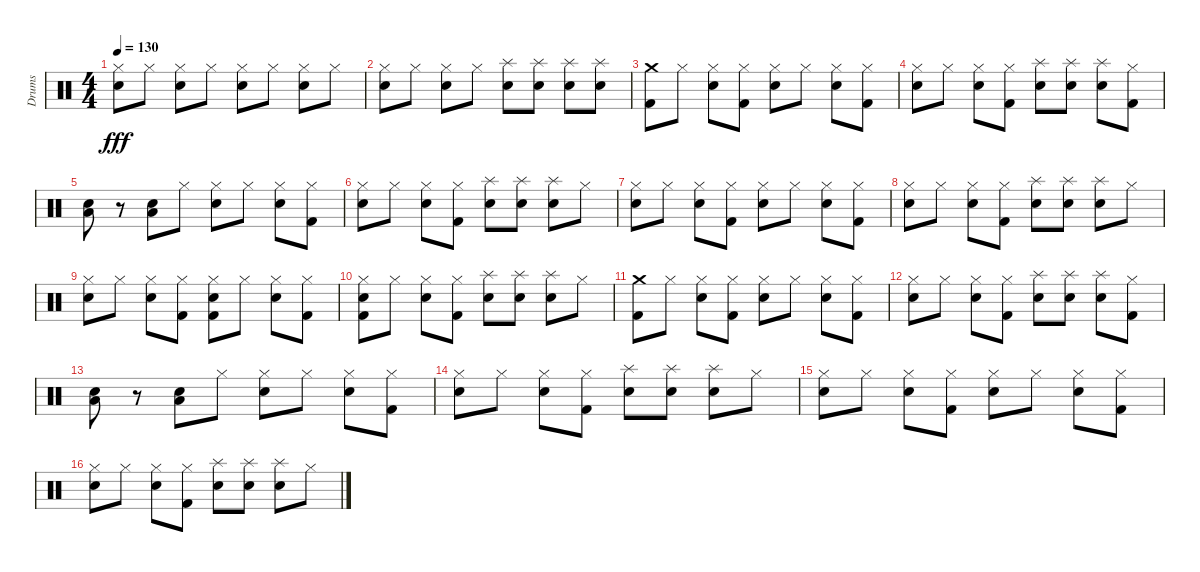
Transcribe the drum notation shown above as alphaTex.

\track ("Drums" "Drums") {instrument percussion}
\staff {score}
\articulation defaults
\ts (4 4)
\tempo 130
\clef neutral
\ks c
("Hi-Hat (closed)" "Snare (hit) 2").8{dy fff} "Hi-Hat (closed)".8 ("Hi-Hat (closed)" "Snare (hit) 2").8 "Hi-Hat (closed)".8 ("Hi-Hat (closed)" "Snare (hit) 2").8 "Hi-Hat (closed)".8 ("Hi-Hat (closed)" "Snare (hit) 2").8 "Hi-Hat (closed)".8 |
("Hi-Hat (closed)" "Snare (hit) 2").8 "Hi-Hat (closed)".8 ("Hi-Hat (closed)" "Snare (hit) 2").8 "Hi-Hat (closed)".8 ("Splash (hit)" "Snare (hit) 2").8 ("Splash (hit)" "Snare (hit) 2").8 ("Splash (hit)" "Snare (hit) 2").8 ("Splash (hit)" "Snare (hit) 2").8 |
("Crash medium (hit)" "Kick (hit) 2").8 "Hi-Hat (closed)".8 ("Hi-Hat (closed)" "Snare (hit) 2").8 ("Hi-Hat (closed)" "Kick (hit) 2").8 ("Hi-Hat (closed)" "Snare (hit) 2").8 "Hi-Hat (closed)".8 ("Hi-Hat (closed)" "Snare (hit) 2").8 ("Hi-Hat (closed)" "Kick (hit) 2").8 |
("Hi-Hat (closed)" "Snare (hit) 2").8 "Hi-Hat (closed)".8 ("Hi-Hat (closed)" "Snare (hit) 2").8 ("Hi-Hat (closed)" "Kick (hit) 2").8 ("Splash (hit)" "Snare (hit) 2").8 ("Splash (hit)" "Snare (hit) 2").8 ("Splash (hit)" "Snare (hit) 2").8 ("Hi-Hat (closed)" "Kick (hit) 2").8 |
("Snare (hit) 2" "Low Floor Tom (hit)").8 r.8 ("Snare (hit) 2" "Low Floor Tom (hit)").8 "Hi-Hat (closed)".8 ("Hi-Hat (closed)" "Snare (hit) 2").8 "Hi-Hat (closed)".8 ("Hi-Hat (closed)" "Snare (hit) 2").8 ("Hi-Hat (closed)" "Kick (hit) 2").8 |
("Hi-Hat (closed)" "Snare (hit) 2").8 "Hi-Hat (closed)".8 ("Hi-Hat (closed)" "Snare (hit) 2").8 ("Hi-Hat (closed)" "Kick (hit) 2").8 ("Splash (hit)" "Snare (hit) 2").8 ("Splash (hit)" "Snare (hit) 2").8 ("Splash (hit)" "Snare (hit) 2").8 "Hi-Hat (closed)".8 |
("Hi-Hat (closed)" "Snare (hit) 2").8 "Hi-Hat (closed)".8 ("Hi-Hat (closed)" "Snare (hit) 2").8 ("Hi-Hat (closed)" "Kick (hit) 2").8 ("Hi-Hat (closed)" "Snare (hit) 2").8 "Hi-Hat (closed)".8 ("Hi-Hat (closed)" "Snare (hit) 2").8 ("Hi-Hat (closed)" "Kick (hit) 2").8 |
("Hi-Hat (closed)" "Snare (hit) 2").8 "Hi-Hat (closed)".8 ("Hi-Hat (closed)" "Snare (hit) 2").8 ("Hi-Hat (closed)" "Kick (hit) 2").8 ("Splash (hit)" "Snare (hit) 2").8 ("Splash (hit)" "Snare (hit) 2").8 ("Splash (hit)" "Snare (hit) 2").8 "Hi-Hat (closed)".8 |
("Hi-Hat (closed)" "Snare (hit) 2").8 "Hi-Hat (closed)".8 ("Hi-Hat (closed)" "Snare (hit) 2").8 ("Hi-Hat (closed)" "Kick (hit) 2").8 ("Hi-Hat (closed)" "Snare (hit) 2" "Kick (hit) 2").8 "Hi-Hat (closed)".8 ("Hi-Hat (closed)" "Snare (hit) 2").8 ("Hi-Hat (closed)" "Kick (hit) 2").8 |
("Hi-Hat (closed)" "Snare (hit) 2" "Kick (hit) 2").8 "Hi-Hat (closed)".8 ("Hi-Hat (closed)" "Snare (hit) 2").8 ("Hi-Hat (closed)" "Kick (hit) 2").8 ("Splash (hit)" "Snare (hit) 2").8 ("Splash (hit)" "Snare (hit) 2").8 ("Splash (hit)" "Snare (hit) 2").8 "Hi-Hat (closed)".8 |
("Crash medium (hit)" "Kick (hit) 2").8 "Hi-Hat (closed)".8 ("Hi-Hat (closed)" "Snare (hit) 2").8 ("Hi-Hat (closed)" "Kick (hit) 2").8 ("Hi-Hat (closed)" "Snare (hit) 2").8 "Hi-Hat (closed)".8 ("Hi-Hat (closed)" "Snare (hit) 2").8 ("Hi-Hat (closed)" "Kick (hit) 2").8 |
("Hi-Hat (closed)" "Snare (hit) 2").8 "Hi-Hat (closed)".8 ("Hi-Hat (closed)" "Snare (hit) 2").8 ("Hi-Hat (closed)" "Kick (hit) 2").8 ("Splash (hit)" "Snare (hit) 2").8 ("Splash (hit)" "Snare (hit) 2").8 ("Splash (hit)" "Snare (hit) 2").8 ("Hi-Hat (closed)" "Kick (hit) 2").8 |
("Snare (hit) 2" "Low Floor Tom (hit)").8 r.8 ("Snare (hit) 2" "Low Floor Tom (hit)").8 "Hi-Hat (closed)".8 ("Hi-Hat (closed)" "Snare (hit) 2").8 "Hi-Hat (closed)".8 ("Hi-Hat (closed)" "Snare (hit) 2").8 ("Hi-Hat (closed)" "Kick (hit) 2").8 |
("Hi-Hat (closed)" "Snare (hit) 2").8 "Hi-Hat (closed)".8 ("Hi-Hat (closed)" "Snare (hit) 2").8 ("Hi-Hat (closed)" "Kick (hit) 2").8 ("Splash (hit)" "Snare (hit) 2").8 ("Splash (hit)" "Snare (hit) 2").8 ("Splash (hit)" "Snare (hit) 2").8 "Hi-Hat (closed)".8 |
("Hi-Hat (closed)" "Snare (hit) 2").8 "Hi-Hat (closed)".8 ("Hi-Hat (closed)" "Snare (hit) 2").8 ("Hi-Hat (closed)" "Kick (hit) 2").8 ("Hi-Hat (closed)" "Snare (hit) 2").8 "Hi-Hat (closed)".8 ("Hi-Hat (closed)" "Snare (hit) 2").8 ("Hi-Hat (closed)" "Kick (hit) 2").8 |
("Hi-Hat (closed)" "Snare (hit) 2").8 "Hi-Hat (closed)".8 ("Hi-Hat (closed)" "Snare (hit) 2").8 ("Hi-Hat (closed)" "Kick (hit) 2").8 ("Splash (hit)" "Snare (hit) 2").8 ("Splash (hit)" "Snare (hit) 2").8 ("Splash (hit)" "Snare (hit) 2").8 "Hi-Hat (closed)".8
